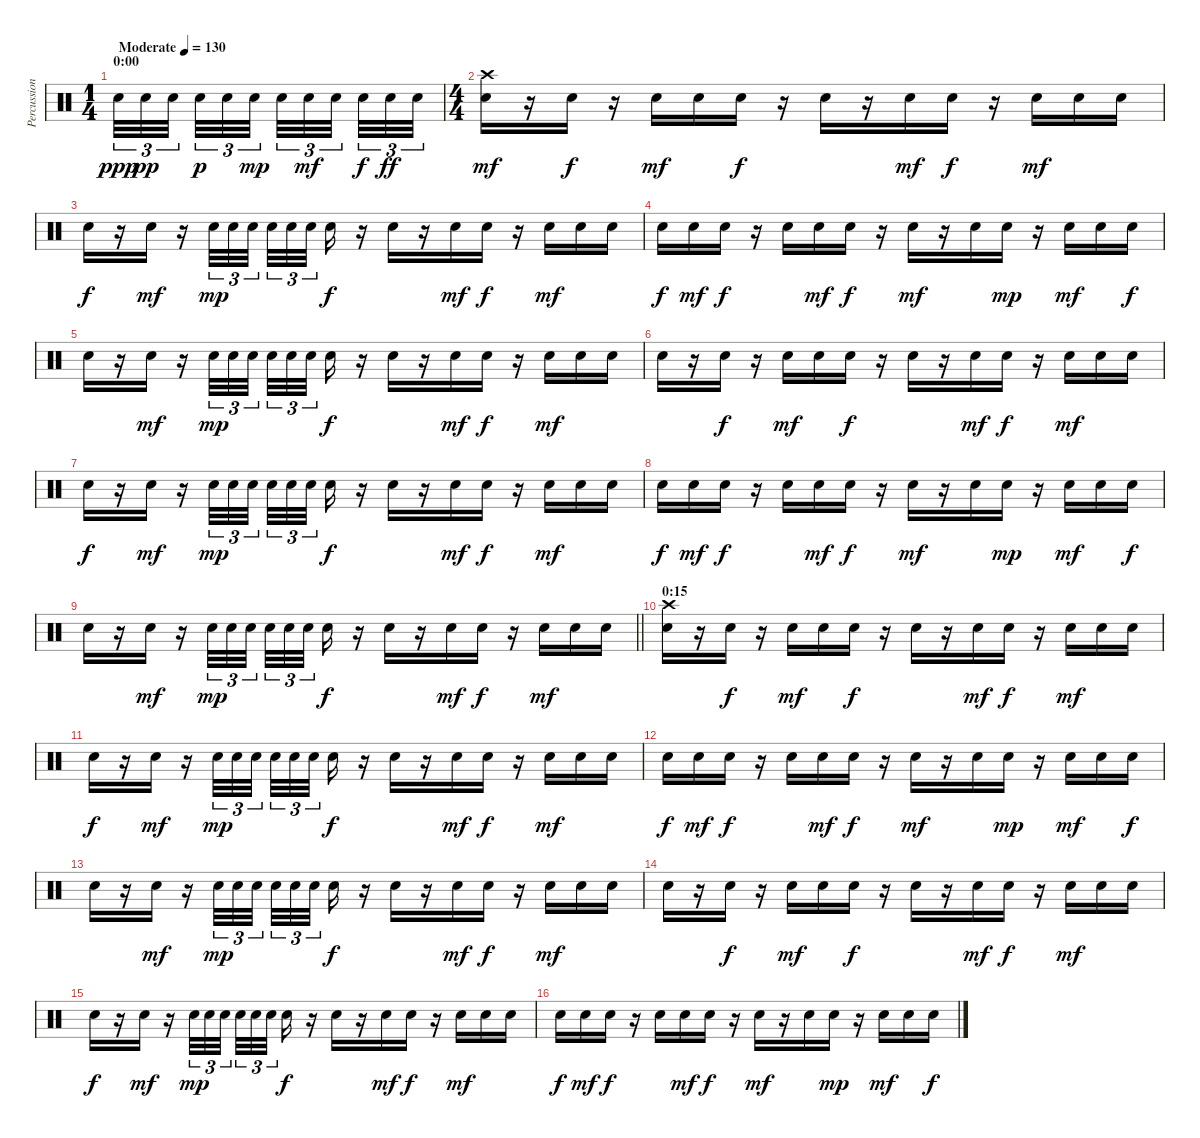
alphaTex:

\track ("Percussion" "Percussion") {instrument percussion}
\staff {score}
\articulation defaults
\ts (1 4)
\section ("" "0:00")
\tempo (130 "Moderate")
\clef neutral
\ks c "Snare (hit) 2".32{tu (3 2) dy ppp} "Snare (hit) 2".32{tu (3 2) dy pp} "Snare (hit) 2".32{tu (3 2) beam splitsecondary} "Snare (hit) 2".32{tu (3 2) dy p} "Snare (hit) 2".32{tu (3 2)} "Snare (hit) 2".32{tu (3 2) dy mp beam splitsecondary} "Snare (hit) 2".32{tu (3 2)} "Snare (hit) 2".32{tu (3 2) dy mf} "Snare (hit) 2".32{tu (3 2) beam splitsecondary} "Snare (hit) 2".32{tu (3 2) dy f} "Snare (hit) 2".32{tu (3 2) dy ff} "Snare (hit) 2".32{tu (3 2)}
|
\ts (4 4)
("Crash high (hit)" "Snare (hit) 2").16{dy mf} r.16 "Snare (hit) 2".16{dy f} r.16 "Snare (hit) 2".16{dy mf} "Snare (hit) 2".16 "Snare (hit) 2".16{dy f} r.16 "Snare (hit) 2".16 r.16 "Snare (hit) 2".16{dy mf} "Snare (hit) 2".16{dy f} r.16 "Snare (hit) 2".16{dy mf} "Snare (hit) 2".16 "Snare (hit) 2".16 |
"Snare (hit) 2".16{dy f} r.16 "Snare (hit) 2".16{dy mf} r.16 "Snare (hit) 2".32{tu (3 2) dy mp} "Snare (hit) 2".32{tu (3 2)} "Snare (hit) 2".32{tu (3 2) beam splitsecondary} "Snare (hit) 2".32{tu (3 2)} "Snare (hit) 2".32{tu (3 2)} "Snare (hit) 2".32{tu (3 2) beam splitsecondary} "Snare (hit) 2".16{dy f} r.16 "Snare (hit) 2".16 r.16 "Snare (hit) 2".16{dy mf} "Snare (hit) 2".16{dy f} r.16 "Snare (hit) 2".16{dy mf} "Snare (hit) 2".16 "Snare (hit) 2".16 |
"Snare (hit) 2".16{dy f} "Snare (hit) 2".16{dy mf} "Snare (hit) 2".16{dy f} r.16 "Snare (hit) 2".16 "Snare (hit) 2".16{dy mf} "Snare (hit) 2".16{dy f} r.16 "Snare (hit) 2".16{dy mf} r.16 "Snare (hit) 2".16 "Snare (hit) 2".16{dy mp} r.16 "Snare (hit) 2".16{dy mf} "Snare (hit) 2".16 "Snare (hit) 2".16{dy f} |
"Snare (hit) 2".16 r.16 "Snare (hit) 2".16{dy mf} r.16 "Snare (hit) 2".32{tu (3 2) dy mp} "Snare (hit) 2".32{tu (3 2)} "Snare (hit) 2".32{tu (3 2) beam splitsecondary} "Snare (hit) 2".32{tu (3 2)} "Snare (hit) 2".32{tu (3 2)} "Snare (hit) 2".32{tu (3 2) beam splitsecondary} "Snare (hit) 2".16{dy f} r.16 "Snare (hit) 2".16 r.16 "Snare (hit) 2".16{dy mf} "Snare (hit) 2".16{dy f} r.16 "Snare (hit) 2".16{dy mf} "Snare (hit) 2".16 "Snare (hit) 2".16 |
"Snare (hit) 2".16 r.16 "Snare (hit) 2".16{dy f} r.16 "Snare (hit) 2".16{dy mf} "Snare (hit) 2".16 "Snare (hit) 2".16{dy f} r.16 "Snare (hit) 2".16 r.16 "Snare (hit) 2".16{dy mf} "Snare (hit) 2".16{dy f} r.16 "Snare (hit) 2".16{dy mf} "Snare (hit) 2".16 "Snare (hit) 2".16 |
"Snare (hit) 2".16{dy f} r.16 "Snare (hit) 2".16{dy mf} r.16 "Snare (hit) 2".32{tu (3 2) dy mp} "Snare (hit) 2".32{tu (3 2)} "Snare (hit) 2".32{tu (3 2) beam splitsecondary} "Snare (hit) 2".32{tu (3 2)} "Snare (hit) 2".32{tu (3 2)} "Snare (hit) 2".32{tu (3 2) beam splitsecondary} "Snare (hit) 2".16{dy f} r.16 "Snare (hit) 2".16 r.16 "Snare (hit) 2".16{dy mf} "Snare (hit) 2".16{dy f} r.16 "Snare (hit) 2".16{dy mf} "Snare (hit) 2".16 "Snare (hit) 2".16 |
"Snare (hit) 2".16{dy f} "Snare (hit) 2".16{dy mf} "Snare (hit) 2".16{dy f} r.16 "Snare (hit) 2".16 "Snare (hit) 2".16{dy mf} "Snare (hit) 2".16{dy f} r.16 "Snare (hit) 2".16{dy mf} r.16 "Snare (hit) 2".16 "Snare (hit) 2".16{dy mp} r.16 "Snare (hit) 2".16{dy mf} "Snare (hit) 2".16 "Snare (hit) 2".16{dy f} |
\barLineRight lightlight "Snare (hit) 2".16
r.16 "Snare (hit) 2".16{dy mf} r.16 "Snare (hit) 2".32{tu (3 2) dy mp} "Snare (hit) 2".32{tu (3 2)} "Snare (hit) 2".32{tu (3 2) beam splitsecondary} "Snare (hit) 2".32{tu (3 2)} "Snare (hit) 2".32{tu (3 2)} "Snare (hit) 2".32{tu (3 2) beam splitsecondary} "Snare (hit) 2".16{dy f} r.16 "Snare (hit) 2".16 r.16 "Snare (hit) 2".16{dy mf} "Snare (hit) 2".16{dy f} r.16 "Snare (hit) 2".16{dy mf} "Snare (hit) 2".16 "Snare (hit) 2".16 |
\section ("" "0:15")
("Crash high (hit)" "Snare (hit) 2").16 r.16 "Snare (hit) 2".16{dy f} r.16 "Snare (hit) 2".16{dy mf} "Snare (hit) 2".16 "Snare (hit) 2".16{dy f} r.16 "Snare (hit) 2".16 r.16 "Snare (hit) 2".16{dy mf} "Snare (hit) 2".16{dy f} r.16 "Snare (hit) 2".16{dy mf} "Snare (hit) 2".16 "Snare (hit) 2".16 |
"Snare (hit) 2".16{dy f} r.16 "Snare (hit) 2".16{dy mf} r.16 "Snare (hit) 2".32{tu (3 2) dy mp} "Snare (hit) 2".32{tu (3 2)} "Snare (hit) 2".32{tu (3 2) beam splitsecondary} "Snare (hit) 2".32{tu (3 2)} "Snare (hit) 2".32{tu (3 2)} "Snare (hit) 2".32{tu (3 2) beam splitsecondary} "Snare (hit) 2".16{dy f} r.16 "Snare (hit) 2".16 r.16 "Snare (hit) 2".16{dy mf} "Snare (hit) 2".16{dy f} r.16 "Snare (hit) 2".16{dy mf} "Snare (hit) 2".16 "Snare (hit) 2".16 |
"Snare (hit) 2".16{dy f} "Snare (hit) 2".16{dy mf} "Snare (hit) 2".16{dy f} r.16 "Snare (hit) 2".16 "Snare (hit) 2".16{dy mf} "Snare (hit) 2".16{dy f} r.16 "Snare (hit) 2".16{dy mf} r.16 "Snare (hit) 2".16 "Snare (hit) 2".16{dy mp} r.16 "Snare (hit) 2".16{dy mf} "Snare (hit) 2".16 "Snare (hit) 2".16{dy f} |
"Snare (hit) 2".16 r.16 "Snare (hit) 2".16{dy mf} r.16 "Snare (hit) 2".32{tu (3 2) dy mp} "Snare (hit) 2".32{tu (3 2)} "Snare (hit) 2".32{tu (3 2) beam splitsecondary} "Snare (hit) 2".32{tu (3 2)} "Snare (hit) 2".32{tu (3 2)} "Snare (hit) 2".32{tu (3 2) beam splitsecondary} "Snare (hit) 2".16{dy f} r.16 "Snare (hit) 2".16 r.16 "Snare (hit) 2".16{dy mf} "Snare (hit) 2".16{dy f} r.16 "Snare (hit) 2".16{dy mf} "Snare (hit) 2".16 "Snare (hit) 2".16 |
"Snare (hit) 2".16 r.16 "Snare (hit) 2".16{dy f} r.16 "Snare (hit) 2".16{dy mf} "Snare (hit) 2".16 "Snare (hit) 2".16{dy f} r.16 "Snare (hit) 2".16 r.16 "Snare (hit) 2".16{dy mf} "Snare (hit) 2".16{dy f} r.16 "Snare (hit) 2".16{dy mf} "Snare (hit) 2".16 "Snare (hit) 2".16 |
"Snare (hit) 2".16{dy f} r.16 "Snare (hit) 2".16{dy mf} r.16 "Snare (hit) 2".32{tu (3 2) dy mp} "Snare (hit) 2".32{tu (3 2)} "Snare (hit) 2".32{tu (3 2) beam splitsecondary} "Snare (hit) 2".32{tu (3 2)} "Snare (hit) 2".32{tu (3 2)} "Snare (hit) 2".32{tu (3 2) beam splitsecondary} "Snare (hit) 2".16{dy f} r.16 "Snare (hit) 2".16 r.16 "Snare (hit) 2".16{dy mf} "Snare (hit) 2".16{dy f} r.16 "Snare (hit) 2".16{dy mf} "Snare (hit) 2".16 "Snare (hit) 2".16 |
"Snare (hit) 2".16{dy f} "Snare (hit) 2".16{dy mf} "Snare (hit) 2".16{dy f} r.16 "Snare (hit) 2".16 "Snare (hit) 2".16{dy mf} "Snare (hit) 2".16{dy f} r.16 "Snare (hit) 2".16{dy mf} r.16 "Snare (hit) 2".16 "Snare (hit) 2".16{dy mp} r.16 "Snare (hit) 2".16{dy mf} "Snare (hit) 2".16 "Snare (hit) 2".16{dy f}
